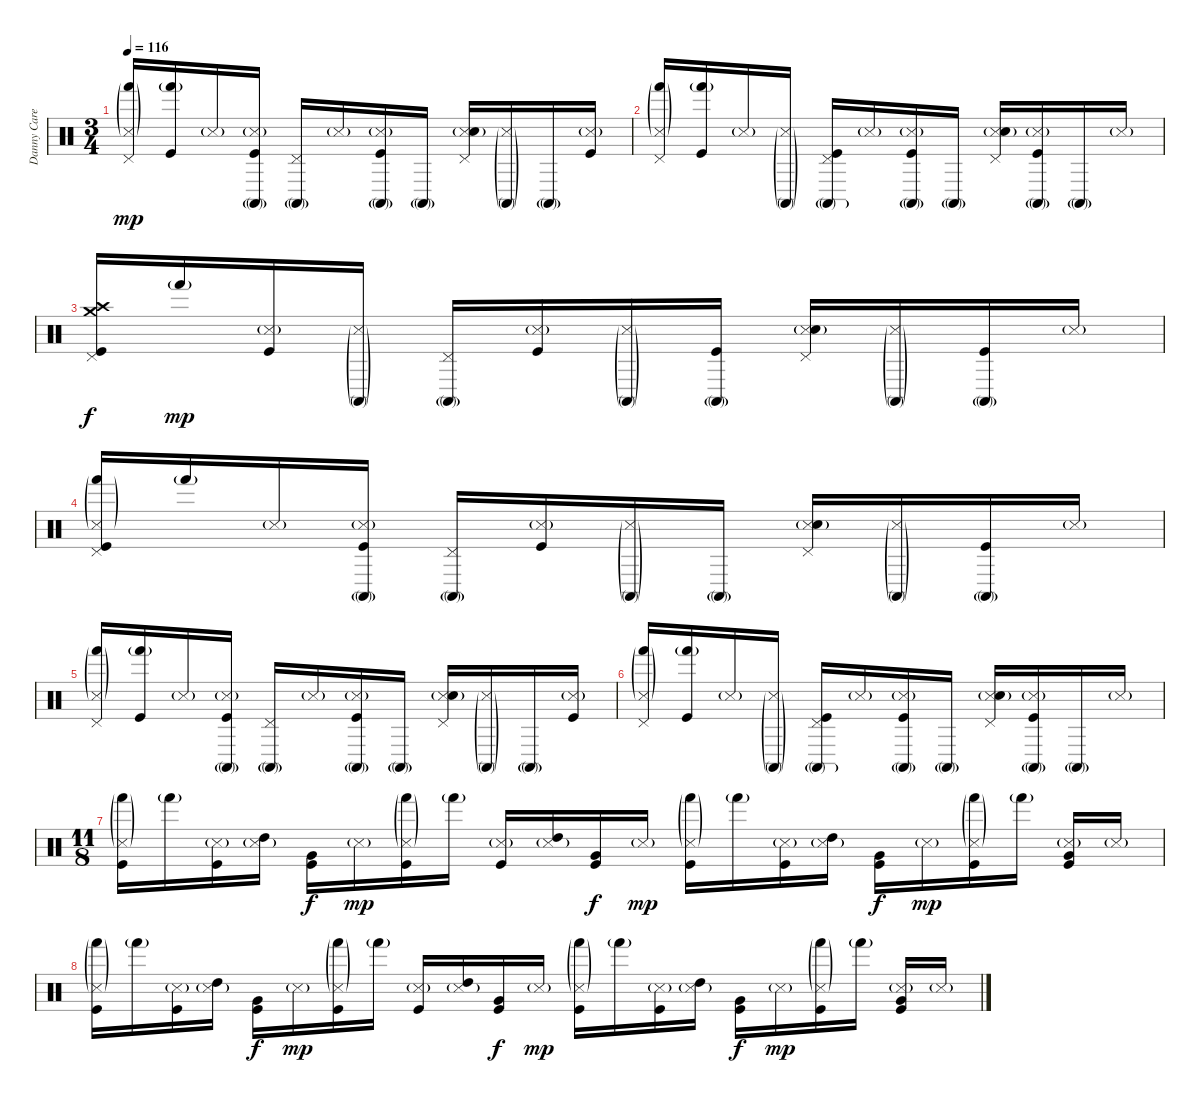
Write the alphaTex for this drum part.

\track ("Danny Carey (drum)" "Danny Care") {instrument percussion}
\staff {score}
\articulation defaults
\ts (3 4)
\tempo 116
\clef neutral
\ks c
("Hand (hit)"{g} "Pedal Hi-Hat (hit)" "Snare (side stick) 3"{g}).16{dy mp} ("Hand (hit)"{g} "Kick (hit)").16 "Snare (side stick) 3"{g}.16 ("Conga high (mute)"{g} "Snare (side stick) 3"{g} "Kick (hit)").16 ("Conga high (mute)"{g} "Pedal Hi-Hat (hit)").16 "Snare (side stick) 3"{g}.16 ("Conga high (mute)"{g} "Snare (side stick) 3"{g} "Kick (hit)").16 "Conga high (mute)"{g}.16 ("Pedal Hi-Hat (hit)" "Snare (side stick) 3"{g} "Snare (hit) 2").16 ("Conga high (mute)"{g} "Snare (side stick) 3"{g}).16 "Conga high (mute)"{g}.16 ("Snare (side stick) 3"{g} "Kick (hit)").16 |
("Hand (hit)"{g} "Pedal Hi-Hat (hit)" "Snare (side stick) 3"{g}).16 ("Hand (hit)"{g} "Kick (hit)").16 "Snare (side stick) 3"{g}.16 ("Conga high (mute)"{g} "Snare (side stick) 3"{g}).16 ("Conga high (mute)"{g} "Pedal Hi-Hat (hit)" "Kick (hit)").16 "Snare (side stick) 3"{g}.16 ("Conga high (mute)"{g} "Snare (side stick) 3"{g} "Kick (hit)").16 "Conga high (mute)"{g}.16 ("Pedal Hi-Hat (hit)" "Snare (side stick) 3"{g} "Snare (hit) 2").16 ("Conga high (mute)"{g} "Snare (side stick) 3"{g} "Kick (hit)").16 "Conga high (mute)"{g}.16 "Snare (side stick) 3"{g}.16 |
("Crash medium (hit)" "Pedal Hi-Hat (hit)" "Crash high (hit)" "Kick (hit)").16{dy f} "Hand (hit)"{g}.16{dy mp} ("Snare (side stick) 3"{g} "Kick (hit)").16 ("Conga high (mute)"{g} "Snare (side stick) 3"{g}).16 ("Conga high (mute)"{g} "Pedal Hi-Hat (hit)").16 ("Snare (side stick) 3"{g} "Kick (hit)").16 ("Conga high (mute)"{g} "Snare (side stick) 3"{g}).16 ("Conga high (mute)"{g} "Kick (hit)").16 ("Pedal Hi-Hat (hit)" "Snare (side stick) 3"{g} "Snare (hit) 2").16 ("Conga high (mute)"{g} "Snare (side stick) 3"{g}).16 ("Conga high (mute)"{g} "Kick (hit)").16 "Snare (side stick) 3"{g}.16 |
("Hand (hit)"{g} "Pedal Hi-Hat (hit)" "Snare (side stick) 3"{g} "Kick (hit)").16 "Hand (hit)"{g}.16 "Snare (side stick) 3"{g}.16 ("Conga high (mute)"{g} "Snare (side stick) 3"{g} "Kick (hit)").16 ("Conga high (mute)"{g} "Pedal Hi-Hat (hit)").16 ("Snare (side stick) 3"{g} "Kick (hit)").16 ("Conga high (mute)"{g} "Snare (side stick) 3"{g}).16 "Conga high (mute)"{g}.16 ("Pedal Hi-Hat (hit)" "Snare (side stick) 3"{g} "Snare (hit) 2").16 ("Conga high (mute)"{g} "Snare (side stick) 3"{g}).16 ("Conga high (mute)"{g} "Kick (hit)").16 "Snare (side stick) 3"{g}.16 |
("Hand (hit)"{g} "Pedal Hi-Hat (hit)" "Snare (side stick) 3"{g}).16 ("Hand (hit)"{g} "Kick (hit)").16 "Snare (side stick) 3"{g}.16 ("Conga high (mute)"{g} "Snare (side stick) 3"{g} "Kick (hit)").16 ("Conga high (mute)"{g} "Pedal Hi-Hat (hit)").16 "Snare (side stick) 3"{g}.16 ("Conga high (mute)"{g} "Snare (side stick) 3"{g} "Kick (hit)").16 "Conga high (mute)"{g}.16 ("Pedal Hi-Hat (hit)" "Snare (side stick) 3"{g} "Snare (hit) 2").16 ("Conga high (mute)"{g} "Snare (side stick) 3"{g}).16 "Conga high (mute)"{g}.16 ("Snare (side stick) 3"{g} "Kick (hit)").16 |
("Hand (hit)"{g} "Pedal Hi-Hat (hit)" "Snare (side stick) 3"{g}).16 ("Hand (hit)"{g} "Kick (hit)").16 "Snare (side stick) 3"{g}.16 ("Conga high (mute)"{g} "Snare (side stick) 3"{g}).16 ("Conga high (mute)"{g} "Pedal Hi-Hat (hit)" "Kick (hit)").16 "Snare (side stick) 3"{g}.16 ("Conga high (mute)"{g} "Snare (side stick) 3"{g} "Kick (hit)").16 "Conga high (mute)"{g}.16 ("Pedal Hi-Hat (hit)" "Snare (side stick) 3"{g} "Snare (hit) 2").16 ("Conga high (mute)"{g} "Snare (side stick) 3"{g} "Kick (hit)").16 "Conga high (mute)"{g}.16 "Snare (side stick) 3"{g}.16 |
\ts (11 8)
("Hand (hit)"{g} "Snare (side stick) 3"{g} "Kick (hit)").16 "Hand (hit)"{g}.16 ("Snare (side stick) 3"{g} "Kick (hit)").16 ("High Tom (hit)" "Snare (side stick) 3"{g}).16 ("Very Low Tom (hit)" "Kick (hit)").16{dy f} "Snare (side stick) 3"{g}.16{dy mp} ("Hand (hit)"{g} "Snare (side stick) 3"{g} "Kick (hit)").16 "Hand (hit)"{g}.16 ("Snare (side stick) 3"{g} "Kick (hit)").16 ("High Tom (hit)" "Snare (side stick) 3"{g}).16 ("Very Low Tom (hit)" "Kick (hit)").16{dy f} "Snare (side stick) 3"{g}.16{dy mp} ("Hand (hit)"{g} "Snare (side stick) 3"{g} "Kick (hit)").16 "Hand (hit)"{g}.16 ("Snare (side stick) 3"{g} "Kick (hit)").16 ("High Tom (hit)" "Snare (side stick) 3"{g}).16 ("Very Low Tom (hit)" "Kick (hit)").16{dy f} "Snare (side stick) 3"{g}.16{dy mp} ("Hand (hit)"{g} "Snare (side stick) 3"{g} "Kick (hit)").16 "Hand (hit)"{g}.16 ("Snare (side stick) 3"{g} "Very Low Tom (hit)" "Kick (hit)").16 "Snare (side stick) 3"{g}.16 |
("Hand (hit)"{g} "Snare (side stick) 3"{g} "Kick (hit)").16 "Hand (hit)"{g}.16 ("Snare (side stick) 3"{g} "Kick (hit)").16 ("High Tom (hit)" "Snare (side stick) 3"{g}).16 ("Very Low Tom (hit)" "Kick (hit)").16{dy f} "Snare (side stick) 3"{g}.16{dy mp} ("Hand (hit)"{g} "Snare (side stick) 3"{g} "Kick (hit)").16 "Hand (hit)"{g}.16 ("Snare (side stick) 3"{g} "Kick (hit)").16 ("High Tom (hit)" "Snare (side stick) 3"{g}).16 ("Very Low Tom (hit)" "Kick (hit)").16{dy f} "Snare (side stick) 3"{g}.16{dy mp} ("Hand (hit)"{g} "Snare (side stick) 3"{g} "Kick (hit)").16 "Hand (hit)"{g}.16 ("Snare (side stick) 3"{g} "Kick (hit)").16 ("High Tom (hit)" "Snare (side stick) 3"{g}).16 ("Very Low Tom (hit)" "Kick (hit)").16{dy f} "Snare (side stick) 3"{g}.16{dy mp} ("Hand (hit)"{g} "Snare (side stick) 3"{g} "Kick (hit)").16 "Hand (hit)"{g}.16 ("Snare (side stick) 3"{g} "Very Low Tom (hit)" "Kick (hit)").16 "Snare (side stick) 3"{g}.16
